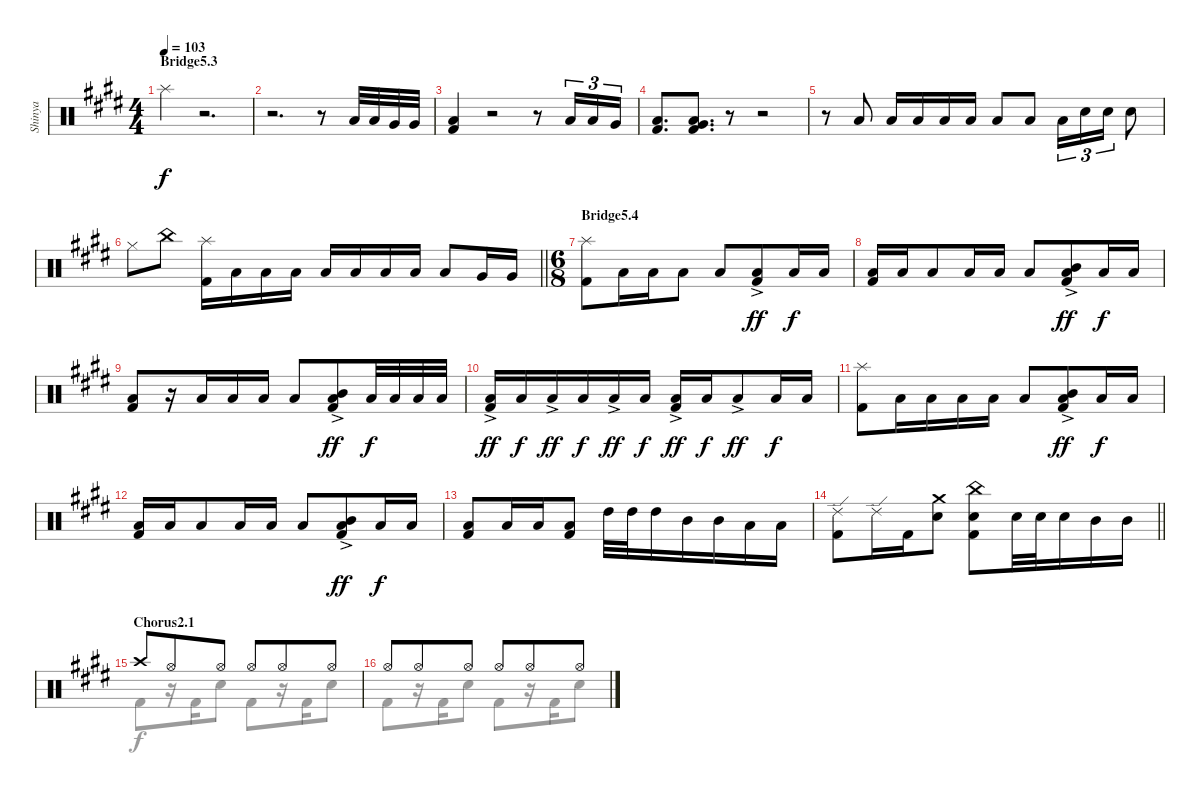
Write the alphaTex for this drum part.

\track ("Shinya" "Shinya") {instrument percussion}
\staff {score}
\articulation defaults
\voice
\ts (4 4)
\section ("" "Bridge5.3")
\tempo 103
\clef neutral
\ks c#minor "Splash (hit)".4{dy f}
r.2{d} |
r.2{d} r.8 "Low Tom (hit)".32 "Low Tom (hit)".32 "Very Low Tom (hit)".32 "Very Low Tom (hit)".32 |
("Low Floor Tom (hit)" "Kick (hit) 2").4 r.2 r.8 "Low Tom (hit)".16{tu (3 2)} "Low Tom (hit)".16{tu (3 2)} "Very Low Tom (hit)".16{tu (3 2)} |
("Low Floor Tom (hit)" "Kick (hit) 2").8{d} ("Very Low Tom (hit)" "Low Floor Tom (hit)" "Kick (hit) 2").8{d} r.8 r.2 |
r.8 "Low Tom (hit)".8 "Low Tom (hit)".16 "Low Tom (hit)".16 "Low Tom (hit)".16 "Low Tom (hit)".16 "Low Tom (hit)".8 "Low Tom (hit)".8 "Low Tom (hit)".16{tu (3 2)} "Snare (hit) 2".16{tu (3 2)} "Snare (hit) 2".16{tu (3 2)} "Snare (hit) 2".8 |
\barLineRight lightlight "Hi-Hat (closed)".8 "China (hit)".8
("Splash (hit)" "Kick (hit) 2").16 "Low Tom (hit)".16 "Low Tom (hit)".16 "Low Tom (hit)".16 "Low Tom (hit)".16 "Low Tom (hit)".16 "Low Tom (hit)".16 "Low Tom (hit)".16 "Low Tom (hit)".8 "Very Low Tom (hit)".16 "Very Low Tom (hit)".16 |
\ts (6 8)
\section ("" "Bridge5.4")
("Splash (hit)" "Kick (hit) 2").8 "Low Tom (hit)".16 "Low Tom (hit)".16 "Low Tom (hit)".8 "Low Tom (hit)".8 ("Low Tom (hit)"{ac} "Kick (hit) 2").8{dy ff} "Low Tom (hit)".16{dy f} "Low Tom (hit)".16 |
("Low Tom (hit)" "Kick (hit) 2").16 "Low Tom (hit)".16 "Low Tom (hit)".8 "Low Tom (hit)".16 "Low Tom (hit)".16 "Low Tom (hit)".8 ("Low Tom (hit)"{ac} "Mid Tom (hit)"{ac} "Kick (hit) 2").8{dy ff} "Low Tom (hit)".16{dy f} "Low Tom (hit)".16 |
("Low Tom (hit)" "Kick (hit) 2").8 r.16 "Low Tom (hit)".16 "Low Tom (hit)".16 "Low Tom (hit)".16 "Low Tom (hit)".8 ("Low Tom (hit)"{ac} "Mid Tom (hit)"{ac} "Kick (hit) 2").8{dy ff} "Low Tom (hit)".32{dy f} "Low Tom (hit)".32 "Low Tom (hit)".32 "Low Tom (hit)".32 |
("Low Tom (hit)"{ac} "Kick (hit) 2").16{dy ff} "Low Tom (hit)".16{dy f} "Low Tom (hit)"{ac}.16{dy ff} "Low Tom (hit)".16{dy f} "Low Tom (hit)"{ac}.16{dy ff} "Low Tom (hit)".16{dy f} ("Low Tom (hit)"{ac} "Kick (hit) 2").16{dy ff} "Low Tom (hit)".16{dy f} "Low Tom (hit)"{ac}.8{dy ff} "Low Tom (hit)".16{dy f} "Low Tom (hit)".16 |
("Splash (hit)" "Kick (hit) 2").8 "Low Tom (hit)".16 "Low Tom (hit)".16 "Low Tom (hit)".16 "Low Tom (hit)".16 "Low Tom (hit)".8 ("Low Tom (hit)"{ac} "Mid Tom (hit)"{ac} "Kick (hit) 2").8{dy ff} "Low Tom (hit)".16{dy f} "Low Tom (hit)".16 |
("Low Tom (hit)" "Kick (hit) 2").16 "Low Tom (hit)".16 "Low Tom (hit)".8 "Low Tom (hit)".16 "Low Tom (hit)".16 "Low Tom (hit)".8 ("Low Tom (hit)"{ac} "Mid Tom (hit)"{ac} "Kick (hit) 2").8{dy ff} "Low Tom (hit)".16{dy f} "Low Tom (hit)".16 |
("Low Tom (hit)" "Kick (hit) 2").8 "Low Tom (hit)".16 "Low Tom (hit)".16 ("Low Tom (hit)" "Kick (hit) 2").8 "High Tom (hit)".32 "High Tom (hit)".32 "High Tom (hit)".16 "Mid Tom (hit)".16 "Mid Tom (hit)".16 "Low Tom (hit)".16 "Low Tom (hit)".16 |
\barLineRight lightlight
("Ride (edge) 2" "Kick (hit) 2").8 "Ride (edge) 2".16 "Kick (hit) 2".16 ("Crash medium (hit)" "Snare (hit) 2").8 ("China (hit)" "Snare (hit) 2" "Kick (hit) 2").8 "Snare (hit) 2".32 "Snare (hit) 2".32 "Snare (hit) 2".16 "Mid Tom (hit)".16 "Mid Tom (hit)".16 |
\section ("" "Chorus2.1")
"Crash high (hit)".8 "Hi-Hat (open)".8 "Hi-Hat (open)".8 "Hi-Hat (open)".8 "Hi-Hat (open)".8 "Hi-Hat (open)".8 |
"Hi-Hat (open)".8 "Hi-Hat (open)".8 "Hi-Hat (open)".8 "Hi-Hat (open)".8 "Hi-Hat (open)".8 "Hi-Hat (open)".8
\voice
\clef neutral
\ottava regular
\simile none
\ks c#minor
|
|
|
|
|
\barLineRight lightlight
|
|
|
|
|
|
|
|
\barLineRight lightlight
|
"Kick (hit) 2".8 r.16 "Kick (hit) 2".16 "Snare (hit) 2".8 "Kick (hit) 2".8 r.16 "Kick (hit) 2".16 "Snare (hit) 2".8 |
"Kick (hit) 2".8 r.16 "Kick (hit) 2".16 "Snare (hit) 2".8 "Kick (hit) 2".8 r.16 "Kick (hit) 2".16 "Snare (hit) 2".8
